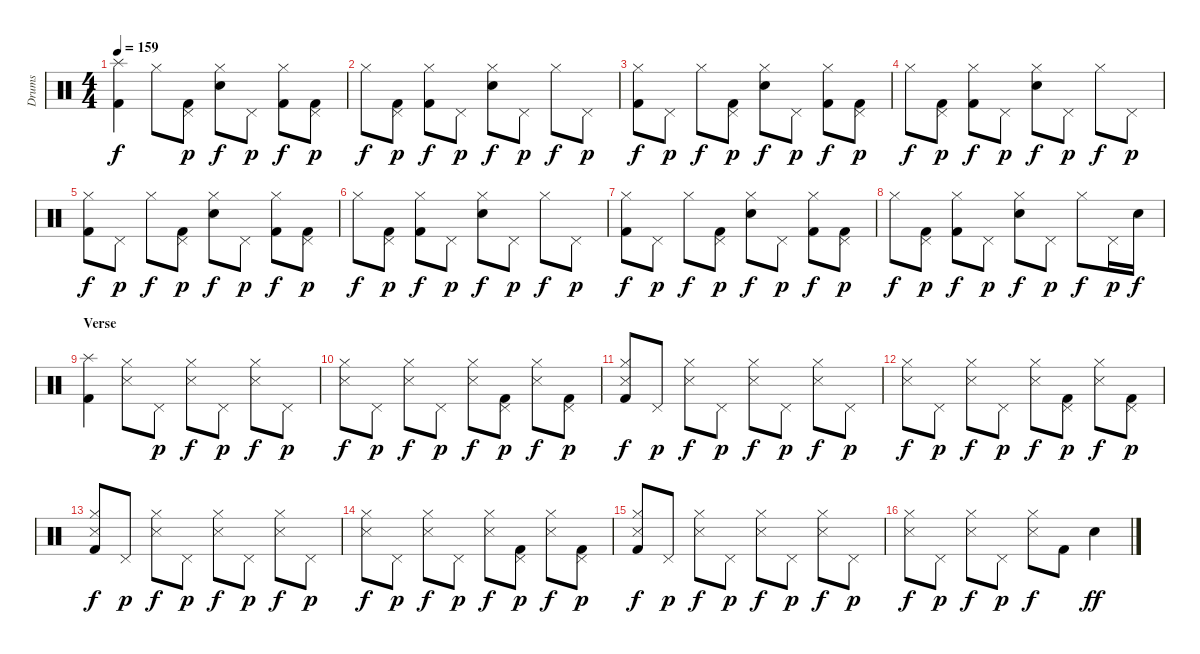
\track ("Drums" "Drums") {instrument percussion}
\staff {score}
\articulation defaults
\ts (4 4)
\tempo 159
\clef neutral
\ks c
("Splash (hit)" "Kick (hit) 2").4{dy f} "Hi-Hat (closed)".8 ("Pedal Hi-Hat (hit)" "Kick (hit) 2").8{dy p} ("Hi-Hat (closed)" "Electric Snare (hit)").8{dy f} "Pedal Hi-Hat (hit)".8{dy p} ("Hi-Hat (closed)" "Kick (hit) 2").8{dy f} ("Pedal Hi-Hat (hit)" "Kick (hit) 2").8{dy p} |
"Hi-Hat (closed)".8{dy f} ("Pedal Hi-Hat (hit)" "Kick (hit) 2").8{dy p} ("Hi-Hat (closed)" "Kick (hit) 2").8{dy f} "Pedal Hi-Hat (hit)".8{dy p} ("Hi-Hat (closed)" "Electric Snare (hit)").8{dy f} "Pedal Hi-Hat (hit)".8{dy p} "Hi-Hat (closed)".8{dy f} "Pedal Hi-Hat (hit)".8{dy p} |
("Hi-Hat (closed)" "Kick (hit) 2").8{dy f} "Pedal Hi-Hat (hit)".8{dy p} "Hi-Hat (closed)".8{dy f} ("Pedal Hi-Hat (hit)" "Kick (hit) 2").8{dy p} ("Hi-Hat (closed)" "Electric Snare (hit)").8{dy f} "Pedal Hi-Hat (hit)".8{dy p} ("Hi-Hat (closed)" "Kick (hit) 2").8{dy f} ("Pedal Hi-Hat (hit)" "Kick (hit) 2").8{dy p} |
"Hi-Hat (closed)".8{dy f} ("Pedal Hi-Hat (hit)" "Kick (hit) 2").8{dy p} ("Hi-Hat (closed)" "Kick (hit) 2").8{dy f} "Pedal Hi-Hat (hit)".8{dy p} ("Hi-Hat (closed)" "Electric Snare (hit)").8{dy f} "Pedal Hi-Hat (hit)".8{dy p} "Hi-Hat (closed)".8{dy f} "Pedal Hi-Hat (hit)".8{dy p} |
("Hi-Hat (closed)" "Kick (hit) 2").8{dy f} "Pedal Hi-Hat (hit)".8{dy p} "Hi-Hat (closed)".8{dy f} ("Pedal Hi-Hat (hit)" "Kick (hit) 2").8{dy p} ("Hi-Hat (closed)" "Electric Snare (hit)").8{dy f} "Pedal Hi-Hat (hit)".8{dy p} ("Hi-Hat (closed)" "Kick (hit) 2").8{dy f} ("Pedal Hi-Hat (hit)" "Kick (hit) 2").8{dy p} |
"Hi-Hat (closed)".8{dy f} ("Pedal Hi-Hat (hit)" "Kick (hit) 2").8{dy p} ("Hi-Hat (closed)" "Kick (hit) 2").8{dy f} "Pedal Hi-Hat (hit)".8{dy p} ("Hi-Hat (closed)" "Electric Snare (hit)").8{dy f} "Pedal Hi-Hat (hit)".8{dy p} "Hi-Hat (closed)".8{dy f} "Pedal Hi-Hat (hit)".8{dy p} |
("Hi-Hat (closed)" "Kick (hit) 2").8{dy f} "Pedal Hi-Hat (hit)".8{dy p} "Hi-Hat (closed)".8{dy f} ("Pedal Hi-Hat (hit)" "Kick (hit) 2").8{dy p} ("Hi-Hat (closed)" "Electric Snare (hit)").8{dy f} "Pedal Hi-Hat (hit)".8{dy p} ("Hi-Hat (closed)" "Kick (hit) 2").8{dy f} ("Pedal Hi-Hat (hit)" "Kick (hit) 2").8{dy p} |
"Hi-Hat (closed)".8{dy f} ("Pedal Hi-Hat (hit)" "Kick (hit) 2").8{dy p} ("Hi-Hat (closed)" "Kick (hit) 2").8{dy f} "Pedal Hi-Hat (hit)".8{dy p} ("Hi-Hat (closed)" "Electric Snare (hit)").8{dy f} "Pedal Hi-Hat (hit)".8{dy p} "Hi-Hat (closed)".8{dy f} "Pedal Hi-Hat (hit)".16{dy p} "Electric Snare (hit)".16{dy f} |
\section ("" "Verse")
("Splash (hit)" "Kick (hit) 2").4 ("Hi-Hat (closed)" "Snare (side stick) 3").8 "Pedal Hi-Hat (hit)".8{dy p} ("Hi-Hat (closed)" "Snare (side stick) 3").8{dy f} "Pedal Hi-Hat (hit)".8{dy p} ("Hi-Hat (closed)" "Snare (side stick) 3").8{dy f} "Pedal Hi-Hat (hit)".8{dy p} |
("Hi-Hat (closed)" "Snare (side stick) 3").8{dy f} "Pedal Hi-Hat (hit)".8{dy p} ("Hi-Hat (closed)" "Snare (side stick) 3").8{dy f} "Pedal Hi-Hat (hit)".8{dy p} ("Hi-Hat (closed)" "Snare (side stick) 3").8{dy f} ("Pedal Hi-Hat (hit)" "Kick (hit) 2").8{dy p} ("Hi-Hat (closed)" "Snare (side stick) 3").8{dy f} ("Pedal Hi-Hat (hit)" "Kick (hit) 2").8{dy p} |
("Hi-Hat (closed)" "Snare (side stick) 3" "Kick (hit) 2").8{dy f} "Pedal Hi-Hat (hit)".8{dy p} ("Hi-Hat (closed)" "Snare (side stick) 3").8{dy f} "Pedal Hi-Hat (hit)".8{dy p} ("Hi-Hat (closed)" "Snare (side stick) 3").8{dy f} "Pedal Hi-Hat (hit)".8{dy p} ("Hi-Hat (closed)" "Snare (side stick) 3").8{dy f} "Pedal Hi-Hat (hit)".8{dy p} |
("Hi-Hat (closed)" "Snare (side stick) 3").8{dy f} "Pedal Hi-Hat (hit)".8{dy p} ("Hi-Hat (closed)" "Snare (side stick) 3").8{dy f} "Pedal Hi-Hat (hit)".8{dy p} ("Hi-Hat (closed)" "Snare (side stick) 3").8{dy f} ("Pedal Hi-Hat (hit)" "Kick (hit) 2").8{dy p} ("Hi-Hat (closed)" "Snare (side stick) 3").8{dy f} ("Pedal Hi-Hat (hit)" "Kick (hit) 2").8{dy p} |
("Hi-Hat (closed)" "Snare (side stick) 3" "Kick (hit) 2").8{dy f} "Pedal Hi-Hat (hit)".8{dy p} ("Hi-Hat (closed)" "Snare (side stick) 3").8{dy f} "Pedal Hi-Hat (hit)".8{dy p} ("Hi-Hat (closed)" "Snare (side stick) 3").8{dy f} "Pedal Hi-Hat (hit)".8{dy p} ("Hi-Hat (closed)" "Snare (side stick) 3").8{dy f} "Pedal Hi-Hat (hit)".8{dy p} |
("Hi-Hat (closed)" "Snare (side stick) 3").8{dy f} "Pedal Hi-Hat (hit)".8{dy p} ("Hi-Hat (closed)" "Snare (side stick) 3").8{dy f} "Pedal Hi-Hat (hit)".8{dy p} ("Hi-Hat (closed)" "Snare (side stick) 3").8{dy f} ("Pedal Hi-Hat (hit)" "Kick (hit) 2").8{dy p} ("Hi-Hat (closed)" "Snare (side stick) 3").8{dy f} ("Pedal Hi-Hat (hit)" "Kick (hit) 2").8{dy p} |
("Hi-Hat (closed)" "Snare (side stick) 3" "Kick (hit) 2").8{dy f} "Pedal Hi-Hat (hit)".8{dy p} ("Hi-Hat (closed)" "Snare (side stick) 3").8{dy f} "Pedal Hi-Hat (hit)".8{dy p} ("Hi-Hat (closed)" "Snare (side stick) 3").8{dy f} "Pedal Hi-Hat (hit)".8{dy p} ("Hi-Hat (closed)" "Snare (side stick) 3").8{dy f} "Pedal Hi-Hat (hit)".8{dy p} |
("Hi-Hat (closed)" "Snare (side stick) 3").8{dy f} "Pedal Hi-Hat (hit)".8{dy p} ("Hi-Hat (closed)" "Snare (side stick) 3").8{dy f} "Pedal Hi-Hat (hit)".8{dy p} ("Hi-Hat (closed)" "Snare (side stick) 3").8{dy f} "Kick (hit) 2".8 "Electric Snare (hit)".4{dy ff}
